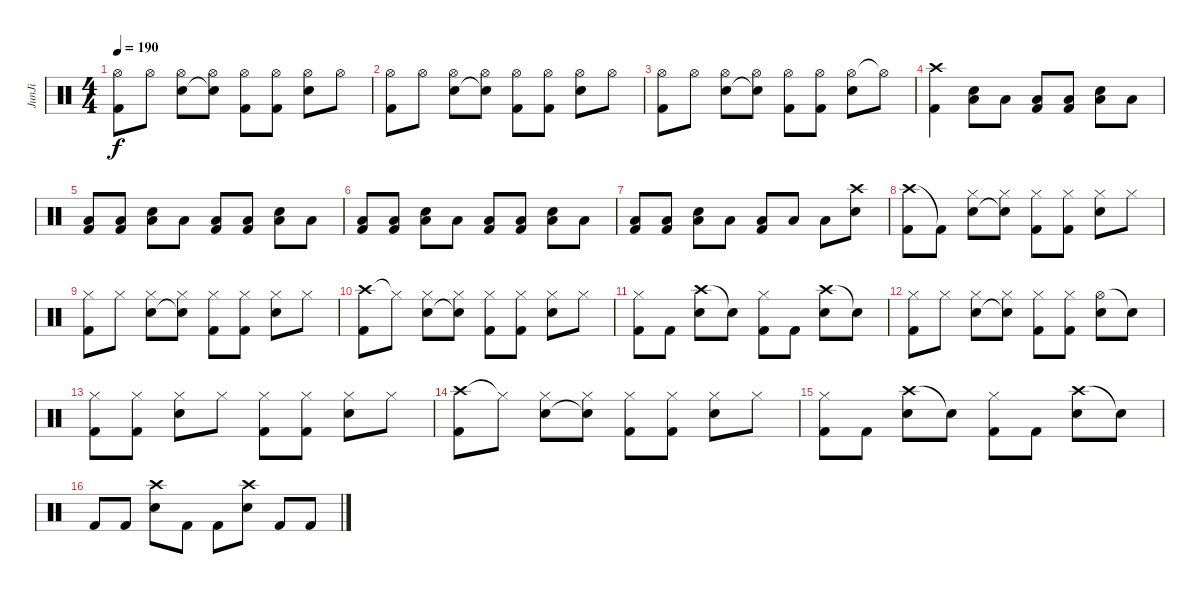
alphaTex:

\track ("JunJi" "JunJi") {instrument percussion}
\staff {score}
\articulation defaults
\ts (4 4)
\tempo 190
\clef neutral
\ks c
("Hi-Hat (open)" "Kick (hit) 2").8{dy f} "Hi-Hat (open)".8 ("Hi-Hat (open)" "Snare (hit) 2").8 ("Hi-Hat (open)" "Snare (hit)"{t}).8 ("Hi-Hat (open)" "Kick (hit) 2").8 ("Hi-Hat (open)" "Kick (hit) 2").8 ("Hi-Hat (open)" "Snare (hit) 2").8 "Hi-Hat (open)".8 |
("Hi-Hat (open)" "Kick (hit) 2").8 "Hi-Hat (open)".8 ("Hi-Hat (open)" "Snare (hit) 2").8 ("Hi-Hat (open)" "Snare (hit)"{t}).8 ("Hi-Hat (open)" "Kick (hit) 2").8 ("Hi-Hat (open)" "Kick (hit) 2").8 ("Hi-Hat (open)" "Snare (hit) 2").8 "Hi-Hat (open)".8 |
("Hi-Hat (open)" "Kick (hit) 2").8 "Hi-Hat (open)".8 ("Hi-Hat (open)" "Snare (hit) 2").8 ("Hi-Hat (open)" "Snare (hit)"{t}).8 ("Hi-Hat (open)" "Kick (hit) 2").8 ("Hi-Hat (open)" "Kick (hit) 2").8 ("Hi-Hat (open)" "Snare (hit) 2").8 "Hi-Hat (open)"{t}.8 |
("Crash high (hit)" "Kick (hit) 2").4 ("Low Tom (hit)" "Snare (hit) 2").8 "Low Tom (hit)".8 ("Low Tom (hit)" "Kick (hit) 2").8 ("Low Tom (hit)" "Kick (hit) 2").8 ("Snare (hit) 2" "Low Tom (hit)").8 "Low Tom (hit)".8 |
("Low Tom (hit)" "Kick (hit) 2").8 ("Low Tom (hit)" "Kick (hit) 2").8 ("Low Tom (hit)" "Snare (hit) 2").8 "Low Tom (hit)".8 ("Low Tom (hit)" "Kick (hit) 2").8 ("Low Tom (hit)" "Kick (hit) 2").8 ("Snare (hit) 2" "Low Tom (hit)").8 "Low Tom (hit)".8 |
("Low Tom (hit)" "Kick (hit) 2").8 ("Low Tom (hit)" "Kick (hit) 2").8 ("Low Tom (hit)" "Snare (hit) 2").8 "Low Tom (hit)".8 ("Low Tom (hit)" "Kick (hit) 2").8 ("Low Tom (hit)" "Kick (hit) 2").8 ("Snare (hit) 2" "Low Tom (hit)").8 "Low Tom (hit)".8 |
("Low Tom (hit)" "Kick (hit) 2").8 ("Low Tom (hit)" "Kick (hit) 2").8 ("Low Tom (hit)" "Snare (hit) 2").8 "Low Tom (hit)".8 ("Low Tom (hit)" "Kick (hit) 2").8 "Low Tom (hit)".8 "Low Tom (hit)".8 ("Crash high (hit)" "Snare (hit) 2").8 |
("Crash high (hit)" "Kick (hit) 2").8 "Kick (hit) 2"{t}.8 ("Hi-Hat (closed)" "Snare (hit) 2").8 ("Hi-Hat (closed)" "Snare (hit)"{t}).8 ("Hi-Hat (closed)" "Kick (hit) 2").8 ("Hi-Hat (closed)" "Kick (hit) 2").8 ("Hi-Hat (closed)" "Snare (hit) 2").8 "Hi-Hat (closed)".8 |
("Hi-Hat (closed)" "Kick (hit) 2").8 "Hi-Hat (closed)".8 ("Hi-Hat (closed)" "Snare (hit) 2").8 ("Hi-Hat (closed)" "Snare (hit)"{t}).8 ("Hi-Hat (closed)" "Kick (hit) 2").8 ("Hi-Hat (closed)" "Kick (hit) 2").8 ("Hi-Hat (closed)" "Snare (hit) 2").8 "Hi-Hat (closed)".8 |
("Crash high (hit)" "Kick (hit) 2").8 "Hi-Hat (closed)"{t}.8 ("Hi-Hat (closed)" "Snare (hit) 2").8 ("Hi-Hat (closed)" "Snare (hit)"{t}).8 ("Hi-Hat (closed)" "Kick (hit) 2").8 ("Hi-Hat (closed)" "Kick (hit) 2").8 ("Hi-Hat (closed)" "Snare (hit) 2").8 "Hi-Hat (closed)".8 |
("Hi-Hat (closed)" "Kick (hit) 2").8 "Kick (hit) 2".8 ("Crash high (hit)" "Snare (hit) 2").8 "Snare (hit)"{t}.8 ("Hi-Hat (closed)" "Kick (hit) 2").8 "Kick (hit) 2".8 ("Crash high (hit)" "Snare (hit) 2").8 "Snare (hit)"{t}.8 |
("Hi-Hat (closed)" "Kick (hit) 2").8 "Hi-Hat (closed)".8 ("Hi-Hat (closed)" "Snare (hit) 2").8 ("Hi-Hat (closed)" "Snare (hit)"{t}).8 ("Hi-Hat (closed)" "Kick (hit) 2").8 ("Hi-Hat (closed)" "Kick (hit) 2").8 ("Hi-Hat (open)" "Snare (hit) 2").8 "Snare (hit)"{t}.8 |
("Hi-Hat (closed)" "Kick (hit) 2").8 ("Hi-Hat (closed)" "Kick (hit) 2").8 ("Hi-Hat (closed)" "Snare (hit) 2").8 "Hi-Hat (closed)".8 ("Hi-Hat (closed)" "Kick (hit) 2").8 ("Hi-Hat (closed)" "Kick (hit) 2").8 ("Hi-Hat (closed)" "Snare (hit) 2").8 "Hi-Hat (closed)".8 |
("Crash high (hit)" "Kick (hit) 2").8 "Hi-Hat (closed)"{t}.8 ("Hi-Hat (closed)" "Snare (hit) 2").8 ("Hi-Hat (closed)" "Snare (hit)"{t}).8 ("Hi-Hat (closed)" "Kick (hit) 2").8 ("Hi-Hat (closed)" "Kick (hit) 2").8 ("Hi-Hat (closed)" "Snare (hit) 2").8 "Hi-Hat (closed)".8 |
("Hi-Hat (closed)" "Kick (hit) 2").8 "Kick (hit) 2".8 ("Crash high (hit)" "Snare (hit) 2").8 "Snare (hit)"{t}.8 ("Hi-Hat (closed)" "Kick (hit) 2").8 "Kick (hit) 2".8 ("Crash high (hit)" "Snare (hit) 2").8 "Snare (hit)"{t}.8 |
"Kick (hit) 2".8 "Kick (hit) 2".8 ("Crash high (hit)" "Snare (hit) 2").8 "Kick (hit) 2".8 "Kick (hit) 2".8 ("Crash high (hit)" "Snare (hit) 2").8 "Kick (hit) 2".8 "Kick (hit) 2".8
